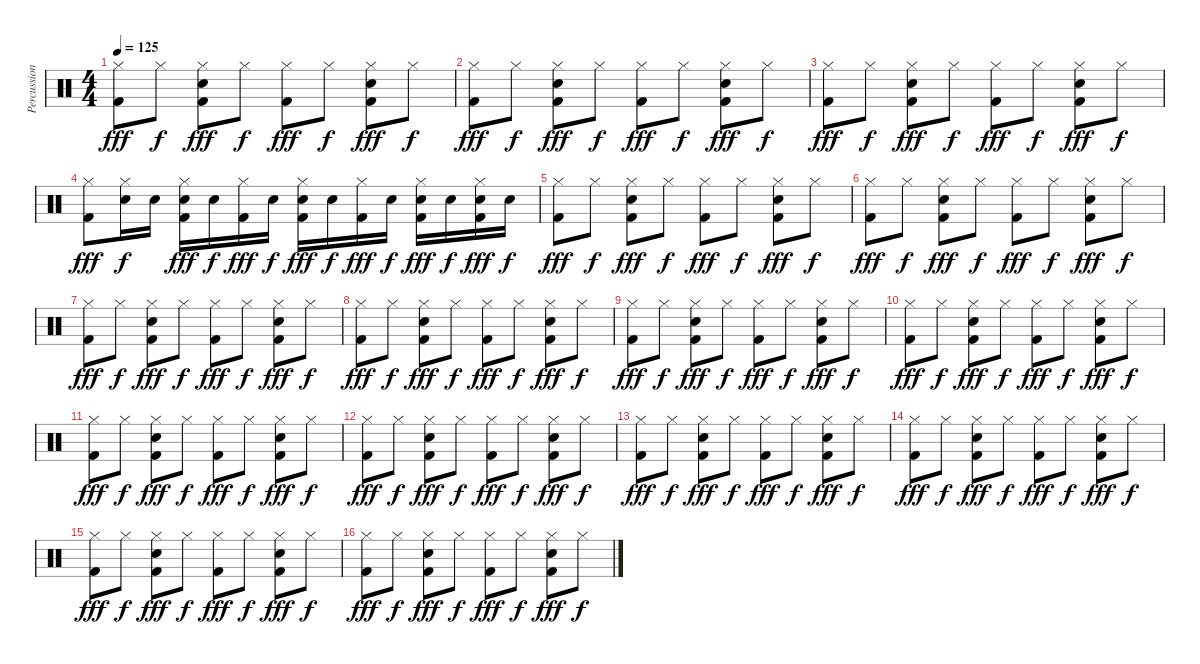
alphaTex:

\track ("Percussion" "Percussion") {instrument percussion}
\staff {score}
\articulation defaults
\ts (4 4)
\tempo 125
\clef neutral
\ks c
("Hi-Hat (closed)" "Kick (hit) 2").8{dy fff} "Hi-Hat (closed)".8{dy f} ("Hi-Hat (closed)" "Kick (hit) 2" "Snare (hit) 2").8{dy fff} "Hi-Hat (closed)".8{dy f} ("Hi-Hat (closed)" "Kick (hit) 2").8{dy fff} "Hi-Hat (closed)".8{dy f} ("Hi-Hat (closed)" "Kick (hit) 2" "Snare (hit) 2").8{dy fff} "Hi-Hat (closed)".8{dy f} |
("Hi-Hat (closed)" "Kick (hit) 2").8{dy fff} "Hi-Hat (closed)".8{dy f} ("Hi-Hat (closed)" "Kick (hit) 2" "Snare (hit) 2").8{dy fff} "Hi-Hat (closed)".8{dy f} ("Hi-Hat (closed)" "Kick (hit) 2").8{dy fff} "Hi-Hat (closed)".8{dy f} ("Hi-Hat (closed)" "Kick (hit) 2" "Snare (hit) 2").8{dy fff} "Hi-Hat (closed)".8{dy f} |
("Hi-Hat (closed)" "Kick (hit) 2").8{dy fff} "Hi-Hat (closed)".8{dy f} ("Hi-Hat (closed)" "Kick (hit) 2" "Snare (hit) 2").8{dy fff} "Hi-Hat (closed)".8{dy f} ("Hi-Hat (closed)" "Kick (hit) 2").8{dy fff} "Hi-Hat (closed)".8{dy f} ("Hi-Hat (closed)" "Kick (hit) 2" "Snare (hit) 2").8{dy fff} "Hi-Hat (closed)".8{dy f} |
("Hi-Hat (closed)" "Kick (hit) 2").8{dy fff} ("Hi-Hat (closed)" "Snare (hit) 2").16{dy f} "Snare (hit) 2".16 ("Hi-Hat (closed)" "Kick (hit) 2" "Snare (hit) 2").16{dy fff} "Snare (hit) 2".16{dy f} ("Hi-Hat (closed)" "Kick (hit) 2").16{dy fff} "Snare (hit) 2".16{dy f} ("Hi-Hat (closed)" "Kick (hit) 2" "Snare (hit) 2").16{dy fff} "Snare (hit) 2".16{dy f} ("Hi-Hat (closed)" "Kick (hit) 2").16{dy fff} "Snare (hit) 2".16{dy f} ("Hi-Hat (closed)" "Kick (hit) 2" "Snare (hit) 2").16{dy fff} "Snare (hit) 2".16{dy f} ("Hi-Hat (closed)" "Kick (hit) 2" "Snare (hit) 2").16{dy fff} "Snare (hit) 2".16{dy f} |
("Hi-Hat (closed)" "Kick (hit) 2").8{dy fff} "Hi-Hat (closed)".8{dy f} ("Hi-Hat (closed)" "Kick (hit) 2" "Snare (hit) 2").8{dy fff} "Hi-Hat (closed)".8{dy f} ("Hi-Hat (closed)" "Kick (hit) 2").8{dy fff} "Hi-Hat (closed)".8{dy f} ("Hi-Hat (closed)" "Kick (hit) 2" "Snare (hit) 2").8{dy fff} "Hi-Hat (closed)".8{dy f} |
("Hi-Hat (closed)" "Kick (hit) 2").8{dy fff} "Hi-Hat (closed)".8{dy f} ("Hi-Hat (closed)" "Kick (hit) 2" "Snare (hit) 2").8{dy fff} "Hi-Hat (closed)".8{dy f} ("Hi-Hat (closed)" "Kick (hit) 2").8{dy fff} "Hi-Hat (closed)".8{dy f} ("Hi-Hat (closed)" "Kick (hit) 2" "Snare (hit) 2").8{dy fff} "Hi-Hat (closed)".8{dy f} |
("Hi-Hat (closed)" "Kick (hit) 2").8{dy fff} "Hi-Hat (closed)".8{dy f} ("Hi-Hat (closed)" "Kick (hit) 2" "Snare (hit) 2").8{dy fff} "Hi-Hat (closed)".8{dy f} ("Hi-Hat (closed)" "Kick (hit) 2").8{dy fff} "Hi-Hat (closed)".8{dy f} ("Hi-Hat (closed)" "Kick (hit) 2" "Snare (hit) 2").8{dy fff} "Hi-Hat (closed)".8{dy f} |
("Hi-Hat (closed)" "Kick (hit) 2").8{dy fff} "Hi-Hat (closed)".8{dy f} ("Hi-Hat (closed)" "Kick (hit) 2" "Snare (hit) 2").8{dy fff} "Hi-Hat (closed)".8{dy f} ("Hi-Hat (closed)" "Kick (hit) 2").8{dy fff} "Hi-Hat (closed)".8{dy f} ("Hi-Hat (closed)" "Kick (hit) 2" "Snare (hit) 2").8{dy fff} "Hi-Hat (closed)".8{dy f} |
("Hi-Hat (closed)" "Kick (hit) 2").8{dy fff} "Hi-Hat (closed)".8{dy f} ("Hi-Hat (closed)" "Kick (hit) 2" "Snare (hit) 2").8{dy fff} "Hi-Hat (closed)".8{dy f} ("Hi-Hat (closed)" "Kick (hit) 2").8{dy fff} "Hi-Hat (closed)".8{dy f} ("Hi-Hat (closed)" "Kick (hit) 2" "Snare (hit) 2").8{dy fff} "Hi-Hat (closed)".8{dy f} |
("Hi-Hat (closed)" "Kick (hit) 2").8{dy fff} "Hi-Hat (closed)".8{dy f} ("Hi-Hat (closed)" "Kick (hit) 2" "Snare (hit) 2").8{dy fff} "Hi-Hat (closed)".8{dy f} ("Hi-Hat (closed)" "Kick (hit) 2").8{dy fff} "Hi-Hat (closed)".8{dy f} ("Hi-Hat (closed)" "Kick (hit) 2" "Snare (hit) 2").8{dy fff} "Hi-Hat (closed)".8{dy f} |
("Hi-Hat (closed)" "Kick (hit) 2").8{dy fff} "Hi-Hat (closed)".8{dy f} ("Hi-Hat (closed)" "Kick (hit) 2" "Snare (hit) 2").8{dy fff} "Hi-Hat (closed)".8{dy f} ("Hi-Hat (closed)" "Kick (hit) 2").8{dy fff} "Hi-Hat (closed)".8{dy f} ("Hi-Hat (closed)" "Kick (hit) 2" "Snare (hit) 2").8{dy fff} "Hi-Hat (closed)".8{dy f} |
("Hi-Hat (closed)" "Kick (hit) 2").8{dy fff} "Hi-Hat (closed)".8{dy f} ("Hi-Hat (closed)" "Kick (hit) 2" "Snare (hit) 2").8{dy fff} "Hi-Hat (closed)".8{dy f} ("Hi-Hat (closed)" "Kick (hit) 2").8{dy fff} "Hi-Hat (closed)".8{dy f} ("Hi-Hat (closed)" "Kick (hit) 2" "Snare (hit) 2").8{dy fff} "Hi-Hat (closed)".8{dy f} |
("Hi-Hat (closed)" "Kick (hit) 2").8{dy fff} "Hi-Hat (closed)".8{dy f} ("Hi-Hat (closed)" "Kick (hit) 2" "Snare (hit) 2").8{dy fff} "Hi-Hat (closed)".8{dy f} ("Hi-Hat (closed)" "Kick (hit) 2").8{dy fff} "Hi-Hat (closed)".8{dy f} ("Hi-Hat (closed)" "Kick (hit) 2" "Snare (hit) 2").8{dy fff} "Hi-Hat (closed)".8{dy f} |
("Hi-Hat (closed)" "Kick (hit) 2").8{dy fff} "Hi-Hat (closed)".8{dy f} ("Hi-Hat (closed)" "Kick (hit) 2" "Snare (hit) 2").8{dy fff} "Hi-Hat (closed)".8{dy f} ("Hi-Hat (closed)" "Kick (hit) 2").8{dy fff} "Hi-Hat (closed)".8{dy f} ("Hi-Hat (closed)" "Kick (hit) 2" "Snare (hit) 2").8{dy fff} "Hi-Hat (closed)".8{dy f} |
("Hi-Hat (closed)" "Kick (hit) 2").8{dy fff} "Hi-Hat (closed)".8{dy f} ("Hi-Hat (closed)" "Kick (hit) 2" "Snare (hit) 2").8{dy fff} "Hi-Hat (closed)".8{dy f} ("Hi-Hat (closed)" "Kick (hit) 2").8{dy fff} "Hi-Hat (closed)".8{dy f} ("Hi-Hat (closed)" "Kick (hit) 2" "Snare (hit) 2").8{dy fff} "Hi-Hat (closed)".8{dy f} |
("Hi-Hat (closed)" "Kick (hit) 2").8{dy fff} "Hi-Hat (closed)".8{dy f} ("Hi-Hat (closed)" "Kick (hit) 2" "Snare (hit) 2").8{dy fff} "Hi-Hat (closed)".8{dy f} ("Hi-Hat (closed)" "Kick (hit) 2").8{dy fff} "Hi-Hat (closed)".8{dy f} ("Hi-Hat (closed)" "Kick (hit) 2" "Snare (hit) 2").8{dy fff} "Hi-Hat (closed)".8{dy f}
